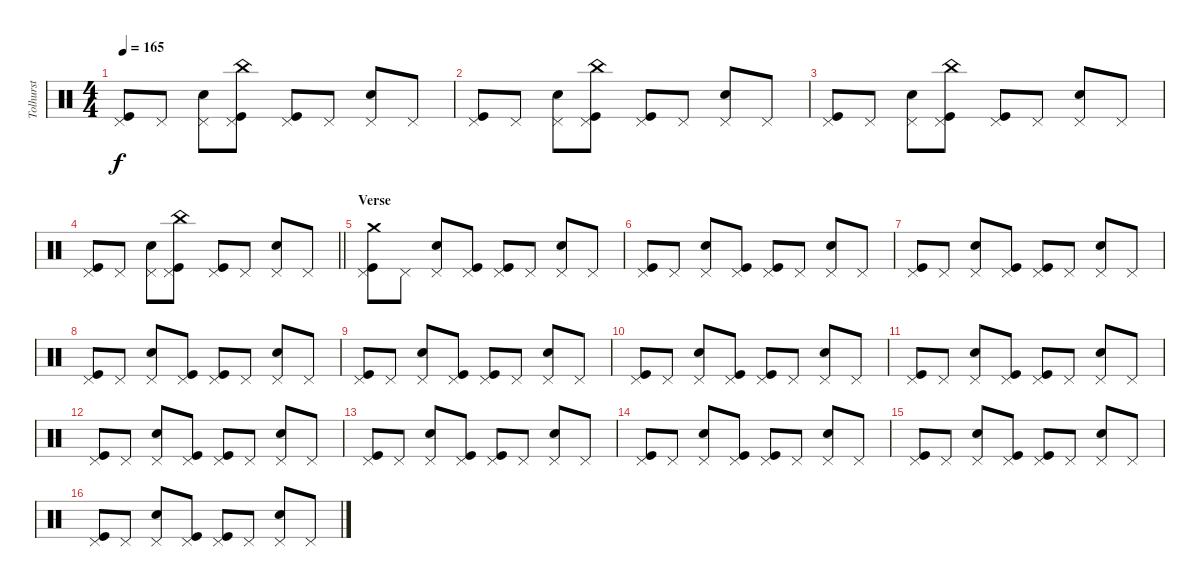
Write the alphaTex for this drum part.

\track ("Tolhurst" "Tolhurst") {instrument percussion}
\staff {score}
\articulation defaults
\ts (4 4)
\tempo 165
\clef neutral
\ks c
("Pedal Hi-Hat (hit)" "Kick (hit)").8{dy f} "Pedal Hi-Hat (hit)".8 ("Pedal Hi-Hat (hit)" "Snare (hit) 2").8 ("China (hit)" "Pedal Hi-Hat (hit)" "Kick (hit)").8 ("Pedal Hi-Hat (hit)" "Kick (hit)").8 "Pedal Hi-Hat (hit)".8 ("Pedal Hi-Hat (hit)" "Snare (hit) 2").8 "Pedal Hi-Hat (hit)".8 |
("Pedal Hi-Hat (hit)" "Kick (hit)").8 "Pedal Hi-Hat (hit)".8 ("Pedal Hi-Hat (hit)" "Snare (hit) 2").8 ("China (hit)" "Pedal Hi-Hat (hit)" "Kick (hit)").8 ("Pedal Hi-Hat (hit)" "Kick (hit)").8 "Pedal Hi-Hat (hit)".8 ("Pedal Hi-Hat (hit)" "Snare (hit) 2").8 "Pedal Hi-Hat (hit)".8 |
("Pedal Hi-Hat (hit)" "Kick (hit)").8 "Pedal Hi-Hat (hit)".8 ("Pedal Hi-Hat (hit)" "Snare (hit) 2").8 ("China (hit)" "Pedal Hi-Hat (hit)" "Kick (hit)").8 ("Pedal Hi-Hat (hit)" "Kick (hit)").8 "Pedal Hi-Hat (hit)".8 ("Pedal Hi-Hat (hit)" "Snare (hit) 2").8 "Pedal Hi-Hat (hit)".8 |
\barLineRight lightlight
("Pedal Hi-Hat (hit)" "Kick (hit)").8 "Pedal Hi-Hat (hit)".8 ("Pedal Hi-Hat (hit)" "Snare (hit) 2").8 ("China (hit)" "Pedal Hi-Hat (hit)" "Kick (hit)").8 ("Pedal Hi-Hat (hit)" "Kick (hit)").8 "Pedal Hi-Hat (hit)".8 ("Pedal Hi-Hat (hit)" "Snare (hit) 2").8 "Pedal Hi-Hat (hit)".8 |
\section ("" "Verse")
("Crash medium (hit)" "Pedal Hi-Hat (hit)" "Kick (hit)").8 "Pedal Hi-Hat (hit)".8 ("Pedal Hi-Hat (hit)" "Snare (hit) 2").8 ("Pedal Hi-Hat (hit)" "Kick (hit)").8 ("Pedal Hi-Hat (hit)" "Kick (hit)").8 "Pedal Hi-Hat (hit)".8 ("Pedal Hi-Hat (hit)" "Snare (hit) 2").8 "Pedal Hi-Hat (hit)".8 |
("Pedal Hi-Hat (hit)" "Kick (hit)").8 "Pedal Hi-Hat (hit)".8 ("Pedal Hi-Hat (hit)" "Snare (hit) 2").8 ("Pedal Hi-Hat (hit)" "Kick (hit)").8 ("Pedal Hi-Hat (hit)" "Kick (hit)").8 "Pedal Hi-Hat (hit)".8 ("Pedal Hi-Hat (hit)" "Snare (hit) 2").8 "Pedal Hi-Hat (hit)".8 |
("Pedal Hi-Hat (hit)" "Kick (hit)").8 "Pedal Hi-Hat (hit)".8 ("Pedal Hi-Hat (hit)" "Snare (hit) 2").8 ("Pedal Hi-Hat (hit)" "Kick (hit)").8 ("Pedal Hi-Hat (hit)" "Kick (hit)").8 "Pedal Hi-Hat (hit)".8 ("Pedal Hi-Hat (hit)" "Snare (hit) 2").8 "Pedal Hi-Hat (hit)".8 |
("Pedal Hi-Hat (hit)" "Kick (hit)").8 "Pedal Hi-Hat (hit)".8 ("Pedal Hi-Hat (hit)" "Snare (hit) 2").8 ("Pedal Hi-Hat (hit)" "Kick (hit)").8 ("Pedal Hi-Hat (hit)" "Kick (hit)").8 "Pedal Hi-Hat (hit)".8 ("Pedal Hi-Hat (hit)" "Snare (hit) 2").8 "Pedal Hi-Hat (hit)".8 |
("Pedal Hi-Hat (hit)" "Kick (hit)").8 "Pedal Hi-Hat (hit)".8 ("Pedal Hi-Hat (hit)" "Snare (hit) 2").8 ("Pedal Hi-Hat (hit)" "Kick (hit)").8 ("Pedal Hi-Hat (hit)" "Kick (hit)").8 "Pedal Hi-Hat (hit)".8 ("Pedal Hi-Hat (hit)" "Snare (hit) 2").8 "Pedal Hi-Hat (hit)".8 |
("Pedal Hi-Hat (hit)" "Kick (hit)").8 "Pedal Hi-Hat (hit)".8 ("Pedal Hi-Hat (hit)" "Snare (hit) 2").8 ("Pedal Hi-Hat (hit)" "Kick (hit)").8 ("Pedal Hi-Hat (hit)" "Kick (hit)").8 "Pedal Hi-Hat (hit)".8 ("Pedal Hi-Hat (hit)" "Snare (hit) 2").8 "Pedal Hi-Hat (hit)".8 |
("Pedal Hi-Hat (hit)" "Kick (hit)").8 "Pedal Hi-Hat (hit)".8 ("Pedal Hi-Hat (hit)" "Snare (hit) 2").8 ("Pedal Hi-Hat (hit)" "Kick (hit)").8 ("Pedal Hi-Hat (hit)" "Kick (hit)").8 "Pedal Hi-Hat (hit)".8 ("Pedal Hi-Hat (hit)" "Snare (hit) 2").8 "Pedal Hi-Hat (hit)".8 |
("Pedal Hi-Hat (hit)" "Kick (hit)").8 "Pedal Hi-Hat (hit)".8 ("Pedal Hi-Hat (hit)" "Snare (hit) 2").8 ("Pedal Hi-Hat (hit)" "Kick (hit)").8 ("Pedal Hi-Hat (hit)" "Kick (hit)").8 "Pedal Hi-Hat (hit)".8 ("Pedal Hi-Hat (hit)" "Snare (hit) 2").8 "Pedal Hi-Hat (hit)".8 |
("Pedal Hi-Hat (hit)" "Kick (hit)").8 "Pedal Hi-Hat (hit)".8 ("Pedal Hi-Hat (hit)" "Snare (hit) 2").8 ("Pedal Hi-Hat (hit)" "Kick (hit)").8 ("Pedal Hi-Hat (hit)" "Kick (hit)").8 "Pedal Hi-Hat (hit)".8 ("Pedal Hi-Hat (hit)" "Snare (hit) 2").8 "Pedal Hi-Hat (hit)".8 |
("Pedal Hi-Hat (hit)" "Kick (hit)").8 "Pedal Hi-Hat (hit)".8 ("Pedal Hi-Hat (hit)" "Snare (hit) 2").8 ("Pedal Hi-Hat (hit)" "Kick (hit)").8 ("Pedal Hi-Hat (hit)" "Kick (hit)").8 "Pedal Hi-Hat (hit)".8 ("Pedal Hi-Hat (hit)" "Snare (hit) 2").8 "Pedal Hi-Hat (hit)".8 |
("Pedal Hi-Hat (hit)" "Kick (hit)").8 "Pedal Hi-Hat (hit)".8 ("Pedal Hi-Hat (hit)" "Snare (hit) 2").8 ("Pedal Hi-Hat (hit)" "Kick (hit)").8 ("Pedal Hi-Hat (hit)" "Kick (hit)").8 "Pedal Hi-Hat (hit)".8 ("Pedal Hi-Hat (hit)" "Snare (hit) 2").8 "Pedal Hi-Hat (hit)".8 |
("Pedal Hi-Hat (hit)" "Kick (hit)").8 "Pedal Hi-Hat (hit)".8 ("Pedal Hi-Hat (hit)" "Snare (hit) 2").8 ("Pedal Hi-Hat (hit)" "Kick (hit)").8 ("Pedal Hi-Hat (hit)" "Kick (hit)").8 "Pedal Hi-Hat (hit)".8 ("Pedal Hi-Hat (hit)" "Snare (hit) 2").8 "Pedal Hi-Hat (hit)".8
